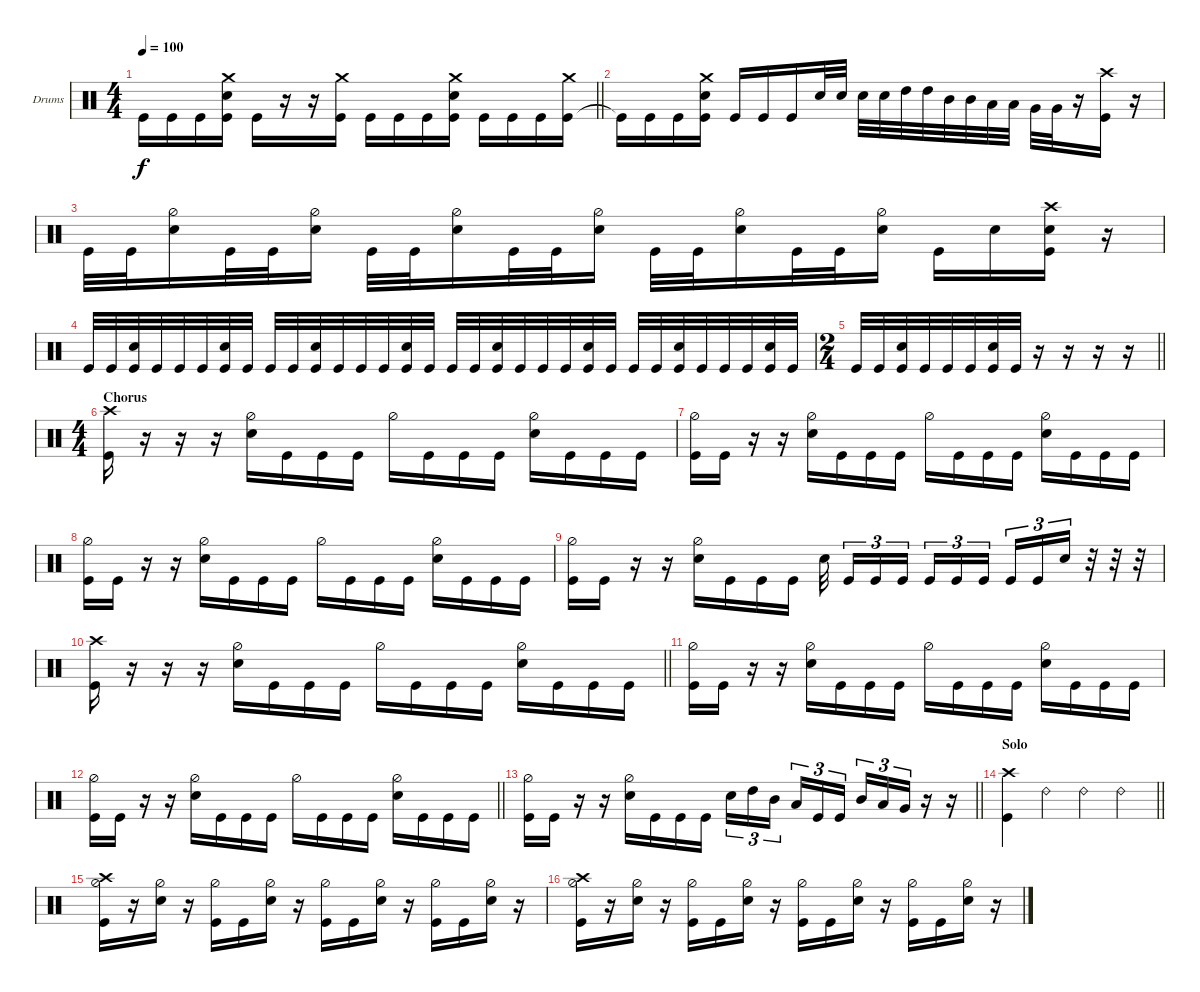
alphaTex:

\bracketExtendMode groupsimilarinstruments
\firstSystemTrackNameOrientation horizontal
\otherSystemsTrackNameOrientation horizontal
\track ("Drumkit" "Drums") {instrument percussion}
\staff {score}
\articulation defaults
\ts (4 4)
\tempo 100
\clef neutral
\scale
0.474178
\barLineRight lightlight
\ks c "Kick (hit)".16{dy f} "Kick (hit)".16 "Kick (hit)".16
("Kick (hit)" "Snare (hit) 2" "Crash medium (hit)").16 "Kick (hit)".16 r.16 r.16 ("Kick (hit)" "Crash medium (hit)").16 "Kick (hit)".16 "Kick (hit)".16 "Kick (hit)".16 ("Kick (hit)" "Crash medium (hit)" "Snare (hit) 2").16 "Kick (hit)".16 "Kick (hit)".16 "Kick (hit)".16 ("Kick (hit)" "Crash medium (hit)").16 |
\scale
0.474178 "Kick (hit)"{t}.16 "Kick (hit)".16 "Kick (hit)".16 ("Kick (hit)" "Snare (hit) 2" "Crash medium (hit)").16 "Kick (hit)".16 "Kick (hit)".16 "Kick (hit)".16 "Snare (hit) 2".32 "Snare (hit) 2".32 "Snare (hit) 2".32 "Snare (hit) 2".32 "High Tom (hit)".32 "High Tom (hit)".32 "Mid Tom (hit)".32 "Mid Tom (hit)".32 "Low Tom (hit)".32 "Low Tom (hit)".32 "Very Low Tom (hit)".32 "Very Low Tom (hit)".32 r.16 ("Kick (hit)" "Crash high (hit)").16 r.16 |
\scale
0.262911 "Kick (hit)".32 "Kick (hit)".32 ("Snare (hit) 2" "Hi-Hat (half)").16 "Kick (hit)".32 "Kick (hit)".32 ("Snare (hit) 2" "Hi-Hat (half)").16 "Kick (hit)".32 "Kick (hit)".32 ("Snare (hit) 2" "Hi-Hat (half)").16 "Kick (hit)".32 "Kick (hit)".32 ("Snare (hit) 2" "Hi-Hat (half)").16 "Kick (hit)".32 "Kick (hit)".32 ("Snare (hit) 2" "Hi-Hat (half)").16 "Kick (hit)".32 "Kick (hit)".32 ("Snare (hit) 2" "Hi-Hat (half)").16 "Kick (hit)".16 "Snare (hit) 2".16 ("Crash high (hit)" "Snare (hit) 2" "Kick (hit)").16 r.16 |
\scale
0.262911 "Kick (hit)".32 "Kick (hit)".32 ("Kick (hit)" "Snare (hit) 2").32 "Kick (hit)".32 "Kick (hit)".32 "Kick (hit)".32 ("Kick (hit)" "Snare (hit) 2").32 "Kick (hit)".32 "Kick (hit)".32 "Kick (hit)".32 ("Kick (hit)" "Snare (hit) 2").32 "Kick (hit)".32 "Kick (hit)".32 "Kick (hit)".32 ("Kick (hit)" "Snare (hit) 2").32 "Kick (hit)".32 "Kick (hit)".32 "Kick (hit)".32 ("Kick (hit)" "Snare (hit) 2").32 "Kick (hit)".32 "Kick (hit)".32 "Kick (hit)".32 ("Kick (hit)" "Snare (hit) 2").32 "Kick (hit)".32 "Kick (hit)".32 "Kick (hit)".32 ("Kick (hit)" "Snare (hit) 2").32 "Kick (hit)".32 "Kick (hit)".32 "Kick (hit)".32 ("Kick (hit)" "Snare (hit) 2").32 "Kick (hit)".32 |
\ts (2 4)
\scale
0.333333
\barLineRight lightlight "Kick (hit)".32 "Kick (hit)".32
("Kick (hit)" "Snare (hit) 2").32 "Kick (hit)".32 "Kick (hit)".32 "Kick (hit)".32 ("Kick (hit)" "Snare (hit) 2").32 "Kick (hit)".32 r.16 r.16 r.16 r.16 |
\ts (4 4)
\section ("" "Chorus")
("Kick (hit)" "Crash high (hit)").16 r.16 r.16 r.16 ("Snare (hit) 2" "Hi-Hat (half)").16 "Kick (hit)".16 "Kick (hit)".16 "Kick (hit)".16 "Hi-Hat (half)".16 "Kick (hit)".16 "Kick (hit)".16 "Kick (hit)".16 ("Hi-Hat (half)" "Snare (hit) 2").16 "Kick (hit)".16 "Kick (hit)".16 "Kick (hit)".16 |
\scale
0.333333 ("Kick (hit)" "Hi-Hat (half)").16 "Kick (hit)".16 r.16 r.16 ("Snare (hit) 2" "Hi-Hat (half)").16 "Kick (hit)".16 "Kick (hit)".16 "Kick (hit)".16 "Hi-Hat (half)".16 "Kick (hit)".16 "Kick (hit)".16 "Kick (hit)".16 ("Hi-Hat (half)" "Snare (hit) 2").16 "Kick (hit)".16 "Kick (hit)".16 "Kick (hit)".16 |
\scale
0.333333 ("Kick (hit)" "Hi-Hat (half)").16 "Kick (hit)".16 r.16 r.16 ("Snare (hit) 2" "Hi-Hat (half)").16 "Kick (hit)".16 "Kick (hit)".16 "Kick (hit)".16 "Hi-Hat (half)".16 "Kick (hit)".16 "Kick (hit)".16 "Kick (hit)".16 ("Hi-Hat (half)" "Snare (hit) 2").16 "Kick (hit)".16 "Kick (hit)".16 "Kick (hit)".16 |
\scale
0.333333 ("Kick (hit)" "Hi-Hat (half)").16 "Kick (hit)".16 r.16 r.16 ("Snare (hit) 2" "Hi-Hat (half)").16 "Kick (hit)".16 "Kick (hit)".16 "Kick (hit)".16 "Snare (hit) 2".32 "Kick (hit)".16{tu (3 2)} "Kick (hit)".16{tu (3 2)} "Kick (hit)".16{tu (3 2)} "Kick (hit)".16{tu (3 2)} "Kick (hit)".16{tu (3 2)} "Kick (hit)".16{tu (3 2)} "Kick (hit)".16{tu (3 2)} "Kick (hit)".16{tu (3 2)} "Snare (hit) 2".16{tu (3 2)} r.32 r.32 r.32 |
\scale
0.333333
\barLineRight lightlight
("Kick (hit)" "Crash high (hit)").16 r.16 r.16 r.16 ("Snare (hit) 2" "Hi-Hat (half)").16 "Kick (hit)".16 "Kick (hit)".16 "Kick (hit)".16 "Hi-Hat (half)".16 "Kick (hit)".16 "Kick (hit)".16 "Kick (hit)".16 ("Hi-Hat (half)" "Snare (hit) 2").16 "Kick (hit)".16 "Kick (hit)".16 "Kick (hit)".16 |
\scale
0.333333 ("Kick (hit)" "Hi-Hat (half)").16 "Kick (hit)".16 r.16 r.16 ("Snare (hit) 2" "Hi-Hat (half)").16 "Kick (hit)".16 "Kick (hit)".16 "Kick (hit)".16 "Hi-Hat (half)".16 "Kick (hit)".16 "Kick (hit)".16 "Kick (hit)".16 ("Hi-Hat (half)" "Snare (hit) 2").16 "Kick (hit)".16 "Kick (hit)".16 "Kick (hit)".16 |
\scale
0.217054
\barLineRight lightlight
("Kick (hit)" "Hi-Hat (half)").16 "Kick (hit)".16 r.16 r.16 ("Snare (hit) 2" "Hi-Hat (half)").16 "Kick (hit)".16 "Kick (hit)".16 "Kick (hit)".16 "Hi-Hat (half)".16 "Kick (hit)".16 "Kick (hit)".16 "Kick (hit)".16 ("Hi-Hat (half)" "Snare (hit) 2").16 "Kick (hit)".16 "Kick (hit)".16 "Kick (hit)".16 |
\scale
0.391473
\barLineRight lightlight
("Kick (hit)" "Hi-Hat (half)").16 "Kick (hit)".16 r.16 r.16 ("Snare (hit) 2" "Hi-Hat (half)").16 "Kick (hit)".16 "Kick (hit)".16 "Kick (hit)".16 "Snare (hit) 2".16{tu (3 2)} "High Tom (hit)".16{tu (3 2)} "Mid Tom (hit)".16{tu (3 2)} "Low Tom (hit)".16{tu (3 2)} "Kick (hit)".16{tu (3 2)} "Kick (hit)".16{tu (3 2)} "Mid Tom (hit)".16{tu (3 2)} "Low Tom (hit)".16{tu (3 2)} "Very Low Tom (hit)".16{tu (3 2)} r.16 r.16 |
\section ("" "Solo ")
\scale
0.391473
\barLineRight lightlight
("Kick (hit)" "Crash high (hit)").4 "Ride (bell) 2".4 "Ride (bell) 2".4 "Ride (bell) 2".4 |
\scale
0.391473 ("Hi-Hat (half)" "Kick (hit)" "Crash high (hit)").16 r.16 ("Hi-Hat (half)" "Snare (hit) 2").16 r.16 ("Hi-Hat (half)" "Kick (hit)").16 "Kick (hit)".16 ("Hi-Hat (half)" "Snare (hit) 2").16 r.16 ("Hi-Hat (half)" "Kick (hit)").16 "Kick (hit)".16 ("Hi-Hat (half)" "Snare (hit) 2").16 r.16 ("Hi-Hat (half)" "Kick (hit)").16 "Kick (hit)".16 ("Hi-Hat (half)" "Snare (hit) 2").16 r.16 |
\scale
0.333333 ("Hi-Hat (half)" "Kick (hit)" "Crash high (hit)").16 r.16 ("Hi-Hat (half)" "Snare (hit) 2").16 r.16 ("Hi-Hat (half)" "Kick (hit)").16 "Kick (hit)".16 ("Hi-Hat (half)" "Snare (hit) 2").16 r.16 ("Hi-Hat (half)" "Kick (hit)").16 "Kick (hit)".16 ("Hi-Hat (half)" "Snare (hit) 2").16 r.16 ("Hi-Hat (half)" "Kick (hit)").16 "Kick (hit)".16 ("Hi-Hat (half)" "Snare (hit) 2").16 r.16
